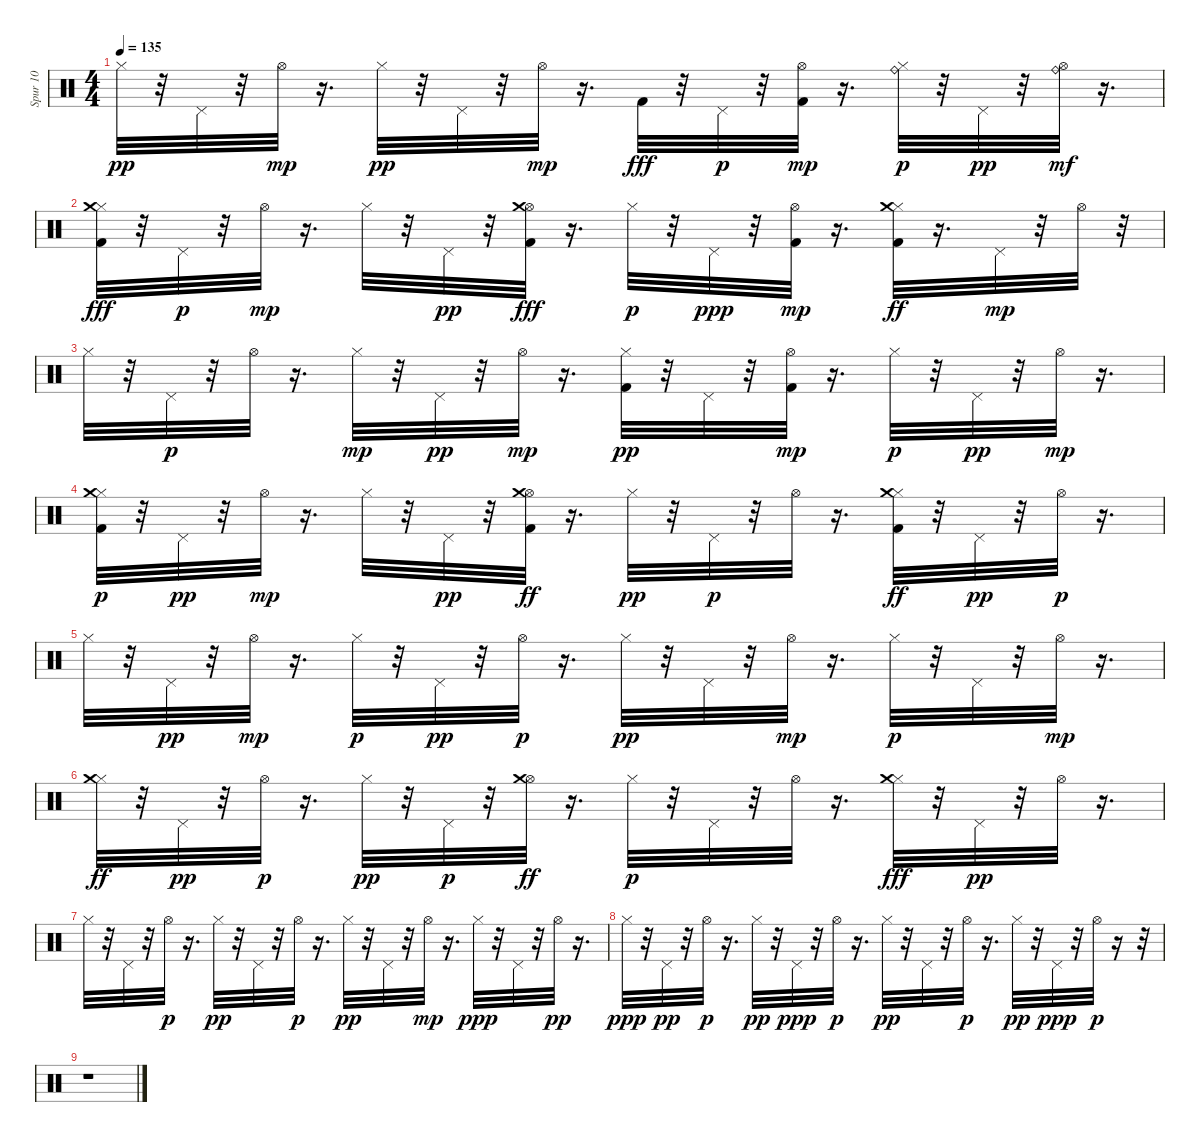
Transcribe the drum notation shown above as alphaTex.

\track ("Spur 10" "Spur 10") {instrument percussion}
\staff {score}
\articulation defaults
\ts (4 4)
\tempo 135
\clef neutral
\ks c "Hi-Hat (closed)".32{dy pp}
r.32 "Pedal Hi-Hat (hit)".32 r.32 "Hi-Hat (open)".32{dy mp} r.16{d} "Hi-Hat (closed)".32{dy pp} r.32 "Pedal Hi-Hat (hit)".32 r.32 "Hi-Hat (open)".32{dy mp} r.16{d} "Kick (hit) 2".32{dy fff} r.32 "Pedal Hi-Hat (hit)".32{dy p} r.32 ("Kick (hit) 2" "Hi-Hat (open)").32{dy mp} r.16{d} ("Hi-Hat (closed)" "Ride (bell)").32{dy p} r.32 "Pedal Hi-Hat (hit)".32{dy pp} r.32 ("Hi-Hat (open)" "Ride (bell)").32{dy mf} r.16{d} |
("Kick (hit) 2" "Hi-Hat (closed)" "Crash medium (hit)").32{dy fff} r.32 "Pedal Hi-Hat (hit)".32{dy p} r.32 "Hi-Hat (open)".32{dy mp} r.16{d} "Hi-Hat (closed)".32 r.32 "Pedal Hi-Hat (hit)".32{dy pp} r.32 ("Kick (hit) 2" "Hi-Hat (open)" "Crash medium (hit)").32{dy fff} r.16{d} "Hi-Hat (closed)".32{dy p} r.32 "Pedal Hi-Hat (hit)".32{dy ppp} r.32 ("Kick (hit) 2" "Hi-Hat (open)").32{dy mp} r.16{d} ("Kick (hit) 2" "Hi-Hat (closed)" "Crash medium (hit)").32{dy ff} r.16{d} "Pedal Hi-Hat (hit)".32{dy mp} r.32 "Hi-Hat (open)".32 r.32 |
"Hi-Hat (closed)".32 r.32 "Pedal Hi-Hat (hit)".32{dy p} r.32 "Hi-Hat (open)".32 r.16{d} "Hi-Hat (closed)".32{dy mp} r.32 "Pedal Hi-Hat (hit)".32{dy pp} r.32 "Hi-Hat (open)".32{dy mp} r.16{d} ("Kick (hit) 2" "Hi-Hat (closed)").32{dy pp} r.32 "Pedal Hi-Hat (hit)".32 r.32 ("Kick (hit) 2" "Hi-Hat (open)").32{dy mp} r.16{d} "Hi-Hat (closed)".32{dy p} r.32 "Pedal Hi-Hat (hit)".32{dy pp} r.32 "Hi-Hat (open)".32{dy mp} r.16{d} |
("Kick (hit) 2" "Hi-Hat (closed)" "Crash medium (hit)").32{dy p} r.32 "Pedal Hi-Hat (hit)".32{dy pp} r.32 "Hi-Hat (open)".32{dy mp} r.16{d} "Hi-Hat (closed)".32 r.32 "Pedal Hi-Hat (hit)".32{dy pp} r.32 ("Kick (hit) 2" "Hi-Hat (open)" "Crash medium (hit)").32{dy ff} r.16{d} "Hi-Hat (closed)".32{dy pp} r.32 "Pedal Hi-Hat (hit)".32{dy p} r.32 "Hi-Hat (open)".32 r.16{d} ("Kick (hit) 2" "Hi-Hat (closed)" "Crash medium (hit)").32{dy ff} r.32 "Pedal Hi-Hat (hit)".32{dy pp} r.32 "Hi-Hat (open)".32{dy p} r.16{d} |
"Hi-Hat (closed)".32 r.32 "Pedal Hi-Hat (hit)".32{dy pp} r.32 "Hi-Hat (open)".32{dy mp} r.16{d} "Hi-Hat (closed)".32{dy p} r.32 "Pedal Hi-Hat (hit)".32{dy pp} r.32 "Hi-Hat (open)".32{dy p} r.16{d} "Hi-Hat (closed)".32{dy pp} r.32 "Pedal Hi-Hat (hit)".32 r.32 "Hi-Hat (open)".32{dy mp} r.16{d} "Hi-Hat (closed)".32{dy p} r.32 "Pedal Hi-Hat (hit)".32 r.32 "Hi-Hat (open)".32{dy mp} r.16{d} |
("Hi-Hat (closed)" "Crash medium (hit)").32{dy ff} r.32 "Pedal Hi-Hat (hit)".32{dy pp} r.32 "Hi-Hat (open)".32{dy p} r.16{d} "Hi-Hat (closed)".32{dy pp} r.32 "Pedal Hi-Hat (hit)".32{dy p} r.32 ("Hi-Hat (open)" "Crash medium (hit)").32{dy ff} r.16{d} "Hi-Hat (closed)".32{dy p} r.32 "Pedal Hi-Hat (hit)".32 r.32 "Hi-Hat (open)".32 r.16{d} ("Hi-Hat (closed)" "Crash medium (hit)").32{dy fff} r.32 "Pedal Hi-Hat (hit)".32{dy pp} r.32 "Hi-Hat (open)".32 r.16{d} |
"Hi-Hat (closed)".32 r.32 "Pedal Hi-Hat (hit)".32 r.32 "Hi-Hat (open)".32{dy p} r.16{d} "Hi-Hat (closed)".32{dy pp} r.32 "Pedal Hi-Hat (hit)".32 r.32 "Hi-Hat (open)".32{dy p} r.16{d} "Hi-Hat (closed)".32{dy pp} r.32 "Pedal Hi-Hat (hit)".32 r.32 "Hi-Hat (open)".32{dy mp} r.16{d} "Hi-Hat (closed)".32{dy ppp} r.32 "Pedal Hi-Hat (hit)".32 r.32 "Hi-Hat (open)".32{dy pp} r.16{d} |
"Hi-Hat (closed)".32{dy ppp} r.32 "Pedal Hi-Hat (hit)".32{dy pp} r.32 "Hi-Hat (open)".32{dy p} r.16{d} "Hi-Hat (closed)".32{dy pp} r.32 "Pedal Hi-Hat (hit)".32{dy ppp} r.32 "Hi-Hat (open)".32{dy p} r.16{d} "Hi-Hat (closed)".32{dy pp} r.32 "Pedal Hi-Hat (hit)".32 r.32 "Hi-Hat (open)".32{dy p} r.16{d} "Hi-Hat (closed)".32{dy pp} r.32 "Pedal Hi-Hat (hit)".32{dy ppp} r.32 "Hi-Hat (open)".32{dy p} r.16 r.32 |
r.1
